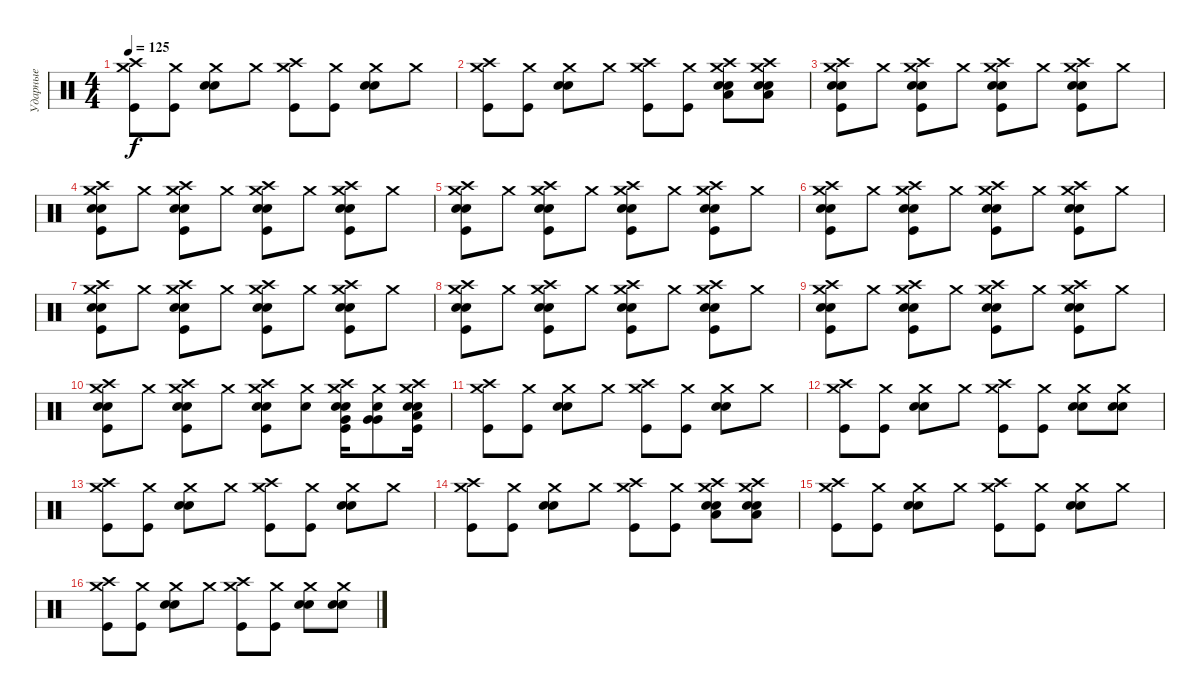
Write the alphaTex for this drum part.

\track ("Ударные" "Ударные") {instrument percussion}
\staff {score}
\articulation defaults
\ts (4 4)
\tempo 125
\clef neutral
\ks c
("Crash medium (hit)" "Crash high (hit)" "Kick (hit)").8{dy f} ("Crash medium (hit)" "Kick (hit)").8 ("Crash medium (hit)" "Snare (hit) 2" "Snare (hit) 2").8 "Crash medium (hit)".8 ("Crash medium (hit)" "Crash high (hit)" "Kick (hit)").8 ("Crash medium (hit)" "Kick (hit)").8 ("Crash medium (hit)" "Snare (hit) 2" "Snare (hit) 2").8 "Crash medium (hit)".8 |
("Crash medium (hit)" "Crash high (hit)" "Kick (hit)").8 ("Crash medium (hit)" "Kick (hit)").8 ("Crash medium (hit)" "Snare (hit) 2" "Snare (hit) 2").8 "Crash medium (hit)".8 ("Crash medium (hit)" "Crash high (hit)" "Kick (hit)").8 ("Crash medium (hit)" "Kick (hit)").8 ("Crash medium (hit)" "Crash high (hit)" "Low Floor Tom (hit)" "Snare (hit) 2" "Snare (hit) 2").8 ("Crash medium (hit)" "Crash high (hit)" "Low Floor Tom (hit)" "Snare (hit) 2" "Snare (hit) 2").8 |
("Crash medium (hit)" "Crash high (hit)" "Snare (hit) 2" "Snare (hit) 2" "Kick (hit)").8 "Crash medium (hit)".8 ("Crash medium (hit)" "Crash high (hit)" "Snare (hit) 2" "Snare (hit) 2" "Kick (hit)").8 "Crash medium (hit)".8 ("Crash medium (hit)" "Crash high (hit)" "Snare (hit) 2" "Snare (hit) 2" "Kick (hit)").8 "Crash medium (hit)".8 ("Crash medium (hit)" "Crash high (hit)" "Snare (hit) 2" "Snare (hit) 2" "Kick (hit)").8 "Crash medium (hit)".8 |
("Crash medium (hit)" "Crash high (hit)" "Snare (hit) 2" "Snare (hit) 2" "Kick (hit)").8 "Crash medium (hit)".8 ("Crash medium (hit)" "Crash high (hit)" "Snare (hit) 2" "Snare (hit) 2" "Kick (hit)").8 "Crash medium (hit)".8 ("Crash medium (hit)" "Crash high (hit)" "Snare (hit) 2" "Snare (hit) 2" "Kick (hit)").8 "Crash medium (hit)".8 ("Crash medium (hit)" "Crash high (hit)" "Snare (hit) 2" "Snare (hit) 2" "Kick (hit)").8 "Crash medium (hit)".8 |
("Crash medium (hit)" "Crash high (hit)" "Snare (hit) 2" "Snare (hit) 2" "Kick (hit)").8 "Crash medium (hit)".8 ("Crash medium (hit)" "Crash high (hit)" "Snare (hit) 2" "Snare (hit) 2" "Kick (hit)").8 "Crash medium (hit)".8 ("Crash medium (hit)" "Crash high (hit)" "Snare (hit) 2" "Snare (hit) 2" "Kick (hit)").8 "Crash medium (hit)".8 ("Crash medium (hit)" "Crash high (hit)" "Snare (hit) 2" "Snare (hit) 2" "Kick (hit)").8 "Crash medium (hit)".8 |
("Crash medium (hit)" "Crash high (hit)" "Snare (hit) 2" "Snare (hit) 2" "Kick (hit)").8 "Crash medium (hit)".8 ("Crash medium (hit)" "Crash high (hit)" "Snare (hit) 2" "Snare (hit) 2" "Kick (hit)").8 "Crash medium (hit)".8 ("Crash medium (hit)" "Crash high (hit)" "Snare (hit) 2" "Snare (hit) 2" "Kick (hit)").8 "Crash medium (hit)".8 ("Crash medium (hit)" "Crash high (hit)" "Snare (hit) 2" "Snare (hit) 2" "Kick (hit)").8 "Crash medium (hit)".8 |
("Crash medium (hit)" "Crash high (hit)" "Snare (hit) 2" "Snare (hit) 2" "Kick (hit)").8 "Crash medium (hit)".8 ("Crash medium (hit)" "Crash high (hit)" "Snare (hit) 2" "Snare (hit) 2" "Kick (hit)").8 "Crash medium (hit)".8 ("Crash medium (hit)" "Crash high (hit)" "Snare (hit) 2" "Snare (hit) 2" "Kick (hit)").8 "Crash medium (hit)".8 ("Crash medium (hit)" "Crash high (hit)" "Snare (hit) 2" "Snare (hit) 2" "Kick (hit)").8 "Crash medium (hit)".8 |
("Crash medium (hit)" "Crash high (hit)" "Snare (hit) 2" "Snare (hit) 2" "Kick (hit)").8 "Crash medium (hit)".8 ("Crash medium (hit)" "Crash high (hit)" "Snare (hit) 2" "Snare (hit) 2" "Kick (hit)").8 "Crash medium (hit)".8 ("Crash medium (hit)" "Crash high (hit)" "Snare (hit) 2" "Snare (hit) 2" "Kick (hit)").8 "Crash medium (hit)".8 ("Crash medium (hit)" "Crash high (hit)" "Snare (hit) 2" "Snare (hit) 2" "Kick (hit)").8 "Crash medium (hit)".8 |
("Crash medium (hit)" "Crash high (hit)" "Snare (hit) 2" "Snare (hit) 2" "Kick (hit)").8 "Crash medium (hit)".8 ("Crash medium (hit)" "Crash high (hit)" "Snare (hit) 2" "Snare (hit) 2" "Kick (hit)").8 "Crash medium (hit)".8 ("Crash medium (hit)" "Crash high (hit)" "Snare (hit) 2" "Snare (hit) 2" "Kick (hit)").8 "Crash medium (hit)".8 ("Crash medium (hit)" "Crash high (hit)" "Snare (hit) 2" "Snare (hit) 2" "Kick (hit)").8 "Crash medium (hit)".8 |
("Crash medium (hit)" "Crash high (hit)" "Snare (hit) 2" "Snare (hit) 2" "Kick (hit)").8 "Crash medium (hit)".8 ("Crash medium (hit)" "Crash high (hit)" "Snare (hit) 2" "Snare (hit) 2" "Kick (hit)").8 "Crash medium (hit)".8 ("Crash medium (hit)" "Crash high (hit)" "Snare (hit) 2" "Snare (hit) 2" "Kick (hit)").8 ("Crash medium (hit)" "Electric Snare (hit)").8 ("Crash medium (hit)" "Crash high (hit)" "Snare (hit) 2" "Snare (hit) 2" "Very Low Tom (hit)" "Kick (hit)").16 ("Crash medium (hit)" "Electric Snare (hit)" "Very Low Tom (hit)" "Very Low Tom (hit)").8 ("Crash high (hit)" "Crash medium (hit)" "Snare (hit) 2" "Snare (hit) 2" "Low Floor Tom (hit)" "Kick (hit)").16 |
("Crash medium (hit)" "Crash high (hit)" "Kick (hit)").8 ("Crash medium (hit)" "Kick (hit)").8 ("Crash medium (hit)" "Snare (hit) 2" "Snare (hit) 2").8 "Crash medium (hit)".8 ("Crash medium (hit)" "Crash high (hit)" "Kick (hit)").8 ("Crash medium (hit)" "Kick (hit)").8 ("Crash medium (hit)" "Snare (hit) 2" "Snare (hit) 2").8 "Crash medium (hit)".8 |
("Crash medium (hit)" "Crash high (hit)" "Kick (hit)").8 ("Crash medium (hit)" "Kick (hit)").8 ("Crash medium (hit)" "Snare (hit) 2" "Snare (hit) 2").8 "Crash medium (hit)".8 ("Crash medium (hit)" "Crash high (hit)" "Kick (hit)").8 ("Crash medium (hit)" "Kick (hit)").8 ("Crash medium (hit)" "Snare (hit) 2" "Snare (hit) 2").8 ("Crash medium (hit)" "Snare (hit) 2" "Snare (hit) 2").8 |
("Crash medium (hit)" "Crash high (hit)" "Kick (hit)").8 ("Crash medium (hit)" "Kick (hit)").8 ("Crash medium (hit)" "Snare (hit) 2" "Snare (hit) 2").8 "Crash medium (hit)".8 ("Crash medium (hit)" "Crash high (hit)" "Kick (hit)").8 ("Crash medium (hit)" "Kick (hit)").8 ("Crash medium (hit)" "Snare (hit) 2" "Snare (hit) 2").8 "Crash medium (hit)".8 |
("Crash medium (hit)" "Crash high (hit)" "Kick (hit)").8 ("Crash medium (hit)" "Kick (hit)").8 ("Crash medium (hit)" "Snare (hit) 2" "Snare (hit) 2").8 "Crash medium (hit)".8 ("Crash medium (hit)" "Crash high (hit)" "Kick (hit)").8 ("Crash medium (hit)" "Kick (hit)").8 ("Crash medium (hit)" "Crash high (hit)" "Low Floor Tom (hit)" "Snare (hit) 2" "Snare (hit) 2").8 ("Crash medium (hit)" "Crash high (hit)" "Low Floor Tom (hit)" "Snare (hit) 2" "Snare (hit) 2").8 |
("Crash medium (hit)" "Crash high (hit)" "Kick (hit)").8 ("Crash medium (hit)" "Kick (hit)").8 ("Crash medium (hit)" "Snare (hit) 2" "Snare (hit) 2").8 "Crash medium (hit)".8 ("Crash medium (hit)" "Crash high (hit)" "Kick (hit)").8 ("Crash medium (hit)" "Kick (hit)").8 ("Crash medium (hit)" "Snare (hit) 2" "Snare (hit) 2").8 "Crash medium (hit)".8 |
("Crash medium (hit)" "Crash high (hit)" "Kick (hit)").8 ("Crash medium (hit)" "Kick (hit)").8 ("Crash medium (hit)" "Snare (hit) 2" "Snare (hit) 2").8 "Crash medium (hit)".8 ("Crash medium (hit)" "Crash high (hit)" "Kick (hit)").8 ("Crash medium (hit)" "Kick (hit)").8 ("Crash medium (hit)" "Snare (hit) 2" "Snare (hit) 2").8 ("Crash medium (hit)" "Snare (hit) 2" "Snare (hit) 2").8
